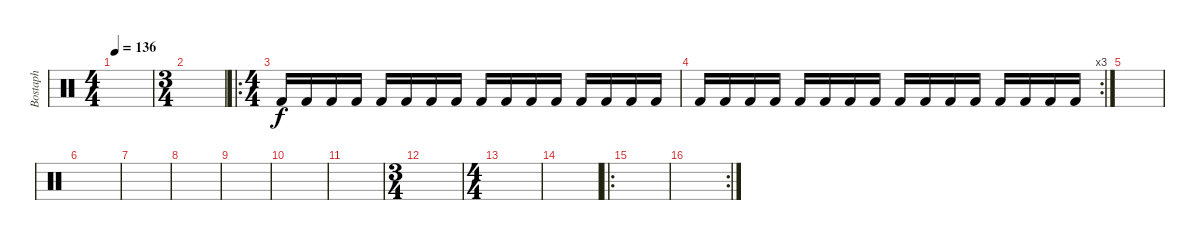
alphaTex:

\track ("Bostaph" "Bostaph") {instrument percussion}
\staff {score}
\articulation defaults
\ts (4 4)
\tempo 136
\clef neutral
\ks c
|
\ts (3 4)
|
\ro
\ts (4 4)
"Kick (hit) 2".16 "Kick (hit) 2".16 "Kick (hit) 2".16 "Kick (hit) 2".16 "Kick (hit) 2".16 "Kick (hit) 2".16 "Kick (hit) 2".16 "Kick (hit) 2".16 "Kick (hit) 2".16 "Kick (hit) 2".16 "Kick (hit) 2".16 "Kick (hit) 2".16 "Kick (hit) 2".16 "Kick (hit) 2".16 "Kick (hit) 2".16 "Kick (hit) 2".16 |
\rc 3 "Kick (hit) 2".16 "Kick (hit) 2".16 "Kick (hit) 2".16 "Kick (hit) 2".16 "Kick (hit) 2".16 "Kick (hit) 2".16 "Kick (hit) 2".16 "Kick (hit) 2".16 "Kick (hit) 2".16 "Kick (hit) 2".16 "Kick (hit) 2".16 "Kick (hit) 2".16 "Kick (hit) 2".16 "Kick (hit) 2".16 "Kick (hit) 2".16 "Kick (hit) 2".16
|
|
|
|
|
|
|
|
\ts (3 4)
|
\ts (4 4)
|
|
\ro
|
\rc 2
